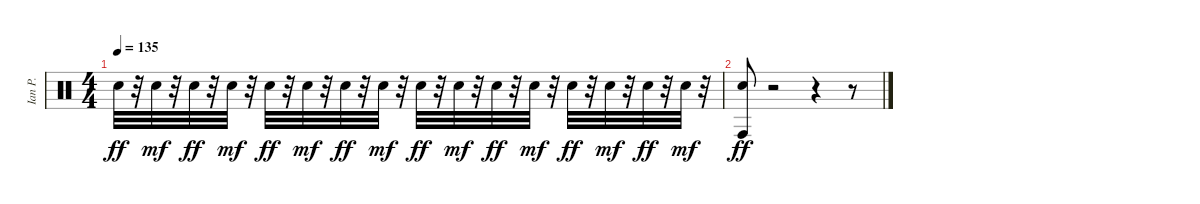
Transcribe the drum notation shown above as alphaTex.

\track ("Ian P." "Ian P.") {instrument percussion}
\staff {score}
\articulation defaults
\ts (4 4)
\tempo 135
\clef neutral
\ks c "Snare (hit) 2".32{dy ff}
r.32 "Snare (hit) 2".32{dy mf} r.32 "Snare (hit) 2".32{dy ff} r.32 "Snare (hit) 2".32{dy mf} r.32 "Snare (hit) 2".32{dy ff} r.32 "Snare (hit) 2".32{dy mf} r.32 "Snare (hit) 2".32{dy ff} r.32 "Snare (hit) 2".32{dy mf} r.32 "Snare (hit) 2".32{dy ff} r.32 "Snare (hit) 2".32{dy mf} r.32 "Snare (hit) 2".32{dy ff} r.32 "Snare (hit) 2".32{dy mf} r.32 "Snare (hit) 2".32{dy ff} r.32 "Snare (hit) 2".32{dy mf} r.32 "Snare (hit) 2".32{dy ff} r.32 "Snare (hit) 2".32{dy mf} r.32 |
("Conga high (hit)" "Snare (hit) 2").8{dy ff} r.2 r.4 r.8
